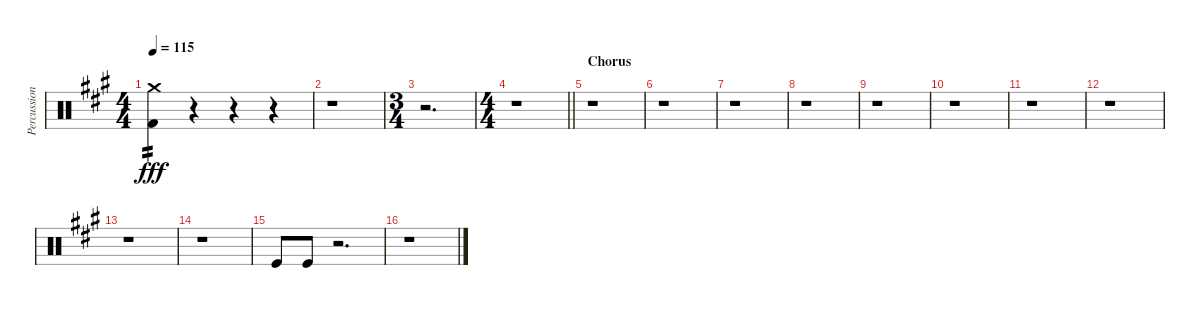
\track ("Percussion" "Percussion") {instrument percussion}
\staff {score}
\articulation defaults
\ts (4 4)
\tempo 115
\clef neutral
\ks a
("Crash medium (hit)" "Kick (hit) 2").4{tp 2 dy fff} r.4 r.4 r.4 |
r.1 |
\ts (3 4)
r.2{d} |
\ts (4 4)
\barLineRight lightlight
r.1 |
\section ("" "Chorus")
r.1 |
r.1 |
r.1 |
r.1 |
r.1 |
r.1 |
r.1 |
r.1 |
r.1 |
r.1 |
"Kick (hit)".8 "Kick (hit)".8 r.2{d} |
r.1
